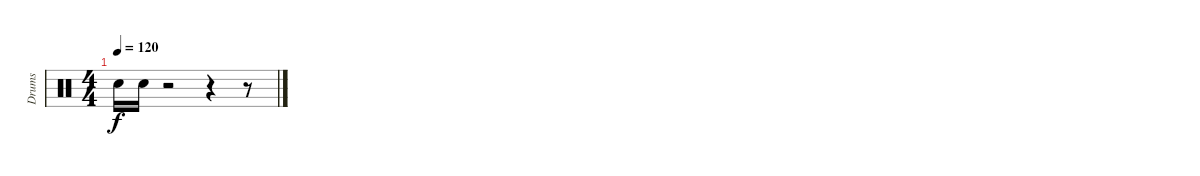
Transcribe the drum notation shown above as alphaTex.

\track ("Drums" "Drums") {instrument percussion}
\staff {score}
\articulation defaults
\ts (4 4)
\tempo 120
\clef neutral
\ks c "Snare (hit) 2".16{dy f} "Snare (hit) 2".16
r.2 r.4 r.8
